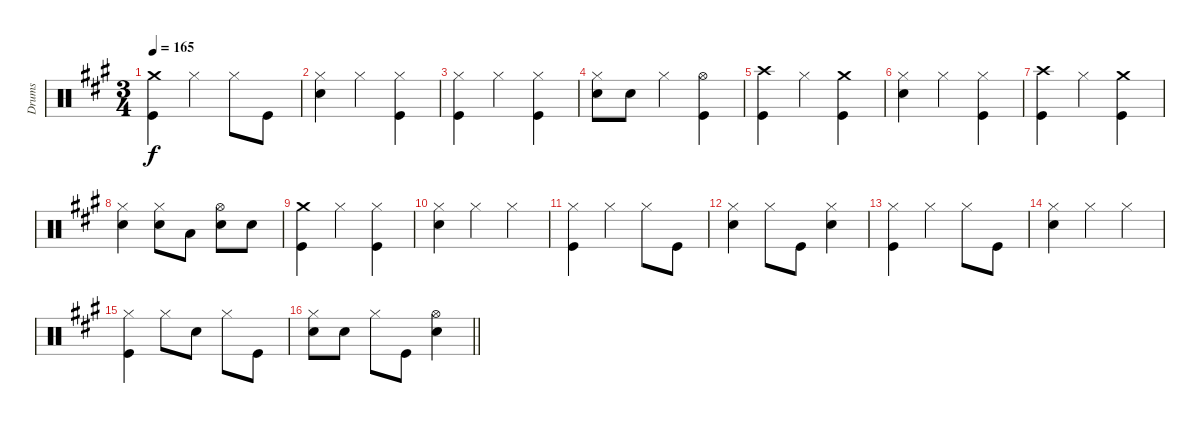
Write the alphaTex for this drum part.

\track ("Drums" "Drums") {instrument percussion}
\staff {score}
\articulation defaults
\ts (3 4)
\tempo 165
\clef neutral
\ks a
("Crash medium (hit)" "Kick (hit)").4{dy f} "Hi-Hat (closed)".4 "Hi-Hat (closed)".8 "Kick (hit)".8 |
("Hi-Hat (closed)" "Snare (hit) 2").4 "Hi-Hat (closed)".4 ("Hi-Hat (closed)" "Kick (hit)").4 |
("Hi-Hat (closed)" "Kick (hit)").4 "Hi-Hat (closed)".4 ("Hi-Hat (closed)" "Kick (hit)").4 |
("Hi-Hat (closed)" "Snare (hit) 2").8 "Snare (hit) 2".8 "Hi-Hat (closed)".4 ("Hi-Hat (open)" "Kick (hit)").4 |
("Crash high (hit)" "Kick (hit)").4 "Hi-Hat (closed)".4 ("Crash medium (hit)" "Kick (hit)").4 |
("Hi-Hat (closed)" "Snare (hit) 2").4 "Hi-Hat (closed)".4 ("Hi-Hat (closed)" "Kick (hit)").4 |
("Crash high (hit)" "Kick (hit)").4 "Hi-Hat (closed)".4 ("Crash medium (hit)" "Kick (hit)").4 |
("Hi-Hat (closed)" "Snare (hit) 2").4 ("Hi-Hat (closed)" "Snare (hit) 2").8 "Low Tom (hit)".8 ("Hi-Hat (open)" "Snare (hit) 2").8 "Snare (hit) 2".8 |
("Crash medium (hit)" "Kick (hit)").4 "Hi-Hat (closed)".4 ("Hi-Hat (closed)" "Kick (hit)").4 |
("Hi-Hat (closed)" "Snare (hit) 2").4 "Hi-Hat (closed)".4 "Hi-Hat (closed)".4 |
("Hi-Hat (closed)" "Kick (hit)").4 "Hi-Hat (closed)".4 "Hi-Hat (closed)".8 "Kick (hit)".8 |
("Hi-Hat (closed)" "Snare (hit) 2").4 "Hi-Hat (closed)".8 "Kick (hit)".8 ("Hi-Hat (closed)" "Snare (hit) 2").4 |
("Hi-Hat (closed)" "Kick (hit)").4 "Hi-Hat (closed)".4 "Hi-Hat (closed)".8 "Kick (hit)".8 |
("Hi-Hat (closed)" "Snare (hit) 2").4 "Hi-Hat (closed)".4 "Hi-Hat (closed)".4 |
("Hi-Hat (closed)" "Kick (hit)").4 "Hi-Hat (closed)".8 "Snare (hit) 2".8 "Hi-Hat (closed)".8 "Kick (hit)".8 |
\barLineRight lightlight
("Hi-Hat (closed)" "Snare (hit) 2").8 "Snare (hit) 2".8 "Hi-Hat (closed)".8 "Kick (hit)".8 ("Hi-Hat (open)" "Snare (hit) 2").4
